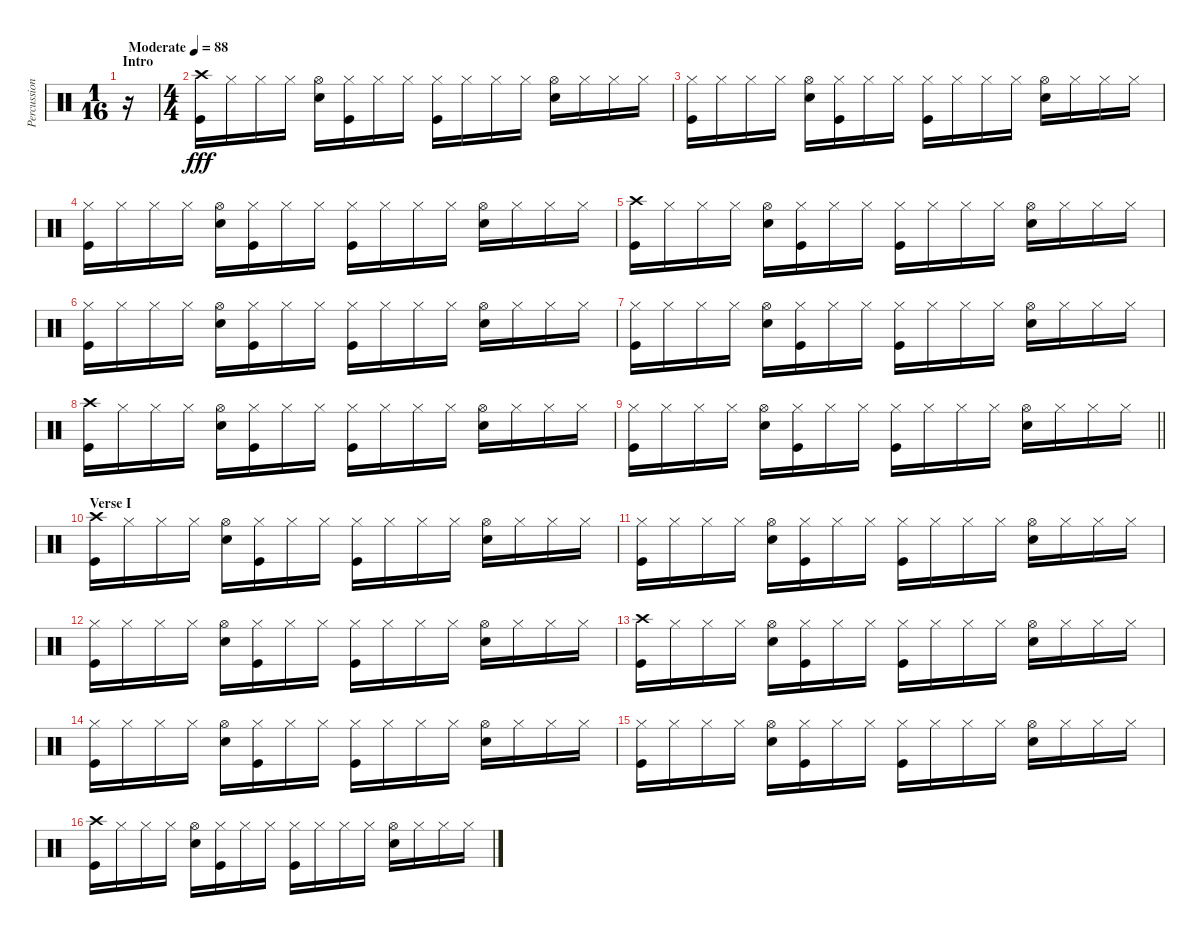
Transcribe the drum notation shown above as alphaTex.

\track ("Percussion" "Percussion") {instrument percussion}
\staff {score}
\articulation defaults
\ts (1 16)
\section ("" "Intro")
\tempo (88 "Moderate")
\clef neutral
\ks c
r.16{dy fff} |
\ts (4 4)
("Crash high (hit)" "Kick (hit)").16 "Hi-Hat (closed)".16 "Hi-Hat (closed)".16 "Hi-Hat (closed)".16 ("Hi-Hat (open)" "Snare (hit) 2").16 ("Hi-Hat (closed)" "Kick (hit)").16 "Hi-Hat (closed)".16 "Hi-Hat (closed)".16 ("Hi-Hat (closed)" "Kick (hit)").16 "Hi-Hat (closed)".16 "Hi-Hat (closed)".16 "Hi-Hat (closed)".16 ("Hi-Hat (open)" "Snare (hit) 2").16 "Hi-Hat (closed)".16 "Hi-Hat (closed)".16 "Hi-Hat (closed)".16 |
("Hi-Hat (closed)" "Kick (hit)").16 "Hi-Hat (closed)".16 "Hi-Hat (closed)".16 "Hi-Hat (closed)".16 ("Hi-Hat (open)" "Snare (hit) 2").16 ("Hi-Hat (closed)" "Kick (hit)").16 "Hi-Hat (closed)".16 "Hi-Hat (closed)".16 ("Hi-Hat (closed)" "Kick (hit)").16 "Hi-Hat (closed)".16 "Hi-Hat (closed)".16 "Hi-Hat (closed)".16 ("Hi-Hat (open)" "Snare (hit) 2").16 "Hi-Hat (closed)".16 "Hi-Hat (closed)".16 "Hi-Hat (closed)".16 |
("Hi-Hat (closed)" "Kick (hit)").16 "Hi-Hat (closed)".16 "Hi-Hat (closed)".16 "Hi-Hat (closed)".16 ("Hi-Hat (open)" "Snare (hit) 2").16 ("Hi-Hat (closed)" "Kick (hit)").16 "Hi-Hat (closed)".16 "Hi-Hat (closed)".16 ("Hi-Hat (closed)" "Kick (hit)").16 "Hi-Hat (closed)".16 "Hi-Hat (closed)".16 "Hi-Hat (closed)".16 ("Hi-Hat (open)" "Snare (hit) 2").16 "Hi-Hat (closed)".16 "Hi-Hat (closed)".16 "Hi-Hat (closed)".16 |
("Crash high (hit)" "Kick (hit)").16 "Hi-Hat (closed)".16 "Hi-Hat (closed)".16 "Hi-Hat (closed)".16 ("Hi-Hat (open)" "Snare (hit) 2").16 ("Hi-Hat (closed)" "Kick (hit)").16 "Hi-Hat (closed)".16 "Hi-Hat (closed)".16 ("Hi-Hat (closed)" "Kick (hit)").16 "Hi-Hat (closed)".16 "Hi-Hat (closed)".16 "Hi-Hat (closed)".16 ("Hi-Hat (open)" "Snare (hit) 2").16 "Hi-Hat (closed)".16 "Hi-Hat (closed)".16 "Hi-Hat (closed)".16 |
("Hi-Hat (closed)" "Kick (hit)").16 "Hi-Hat (closed)".16 "Hi-Hat (closed)".16 "Hi-Hat (closed)".16 ("Hi-Hat (open)" "Snare (hit) 2").16 ("Hi-Hat (closed)" "Kick (hit)").16 "Hi-Hat (closed)".16 "Hi-Hat (closed)".16 ("Hi-Hat (closed)" "Kick (hit)").16 "Hi-Hat (closed)".16 "Hi-Hat (closed)".16 "Hi-Hat (closed)".16 ("Hi-Hat (open)" "Snare (hit) 2").16 "Hi-Hat (closed)".16 "Hi-Hat (closed)".16 "Hi-Hat (closed)".16 |
("Hi-Hat (closed)" "Kick (hit)").16 "Hi-Hat (closed)".16 "Hi-Hat (closed)".16 "Hi-Hat (closed)".16 ("Hi-Hat (open)" "Snare (hit) 2").16 ("Hi-Hat (closed)" "Kick (hit)").16 "Hi-Hat (closed)".16 "Hi-Hat (closed)".16 ("Hi-Hat (closed)" "Kick (hit)").16 "Hi-Hat (closed)".16 "Hi-Hat (closed)".16 "Hi-Hat (closed)".16 ("Hi-Hat (open)" "Snare (hit) 2").16 "Hi-Hat (closed)".16 "Hi-Hat (closed)".16 "Hi-Hat (closed)".16 |
("Crash high (hit)" "Kick (hit)").16 "Hi-Hat (closed)".16 "Hi-Hat (closed)".16 "Hi-Hat (closed)".16 ("Hi-Hat (open)" "Snare (hit) 2").16 ("Hi-Hat (closed)" "Kick (hit)").16 "Hi-Hat (closed)".16 "Hi-Hat (closed)".16 ("Hi-Hat (closed)" "Kick (hit)").16 "Hi-Hat (closed)".16 "Hi-Hat (closed)".16 "Hi-Hat (closed)".16 ("Hi-Hat (open)" "Snare (hit) 2").16 "Hi-Hat (closed)".16 "Hi-Hat (closed)".16 "Hi-Hat (closed)".16 |
\barLineRight lightlight
("Hi-Hat (closed)" "Kick (hit)").16 "Hi-Hat (closed)".16 "Hi-Hat (closed)".16 "Hi-Hat (closed)".16 ("Hi-Hat (open)" "Snare (hit) 2").16 ("Hi-Hat (closed)" "Kick (hit)").16 "Hi-Hat (closed)".16 "Hi-Hat (closed)".16 ("Hi-Hat (closed)" "Kick (hit)").16 "Hi-Hat (closed)".16 "Hi-Hat (closed)".16 "Hi-Hat (closed)".16 ("Hi-Hat (open)" "Snare (hit) 2").16 "Hi-Hat (closed)".16 "Hi-Hat (closed)".16 "Hi-Hat (closed)".16 |
\section ("" "Verse I")
("Crash high (hit)" "Kick (hit)").16 "Hi-Hat (closed)".16 "Hi-Hat (closed)".16 "Hi-Hat (closed)".16 ("Hi-Hat (open)" "Snare (hit) 2").16 ("Hi-Hat (closed)" "Kick (hit)").16 "Hi-Hat (closed)".16 "Hi-Hat (closed)".16 ("Hi-Hat (closed)" "Kick (hit)").16 "Hi-Hat (closed)".16 "Hi-Hat (closed)".16 "Hi-Hat (closed)".16 ("Hi-Hat (open)" "Snare (hit) 2").16 "Hi-Hat (closed)".16 "Hi-Hat (closed)".16 "Hi-Hat (closed)".16 |
("Hi-Hat (closed)" "Kick (hit)").16 "Hi-Hat (closed)".16 "Hi-Hat (closed)".16 "Hi-Hat (closed)".16 ("Hi-Hat (open)" "Snare (hit) 2").16 ("Hi-Hat (closed)" "Kick (hit)").16 "Hi-Hat (closed)".16 "Hi-Hat (closed)".16 ("Hi-Hat (closed)" "Kick (hit)").16 "Hi-Hat (closed)".16 "Hi-Hat (closed)".16 "Hi-Hat (closed)".16 ("Hi-Hat (open)" "Snare (hit) 2").16 "Hi-Hat (closed)".16 "Hi-Hat (closed)".16 "Hi-Hat (closed)".16 |
("Hi-Hat (closed)" "Kick (hit)").16 "Hi-Hat (closed)".16 "Hi-Hat (closed)".16 "Hi-Hat (closed)".16 ("Hi-Hat (open)" "Snare (hit) 2").16 ("Hi-Hat (closed)" "Kick (hit)").16 "Hi-Hat (closed)".16 "Hi-Hat (closed)".16 ("Hi-Hat (closed)" "Kick (hit)").16 "Hi-Hat (closed)".16 "Hi-Hat (closed)".16 "Hi-Hat (closed)".16 ("Hi-Hat (open)" "Snare (hit) 2").16 "Hi-Hat (closed)".16 "Hi-Hat (closed)".16 "Hi-Hat (closed)".16 |
("Crash high (hit)" "Kick (hit)").16 "Hi-Hat (closed)".16 "Hi-Hat (closed)".16 "Hi-Hat (closed)".16 ("Hi-Hat (open)" "Snare (hit) 2").16 ("Hi-Hat (closed)" "Kick (hit)").16 "Hi-Hat (closed)".16 "Hi-Hat (closed)".16 ("Hi-Hat (closed)" "Kick (hit)").16 "Hi-Hat (closed)".16 "Hi-Hat (closed)".16 "Hi-Hat (closed)".16 ("Hi-Hat (open)" "Snare (hit) 2").16 "Hi-Hat (closed)".16 "Hi-Hat (closed)".16 "Hi-Hat (closed)".16 |
("Hi-Hat (closed)" "Kick (hit)").16 "Hi-Hat (closed)".16 "Hi-Hat (closed)".16 "Hi-Hat (closed)".16 ("Hi-Hat (open)" "Snare (hit) 2").16 ("Hi-Hat (closed)" "Kick (hit)").16 "Hi-Hat (closed)".16 "Hi-Hat (closed)".16 ("Hi-Hat (closed)" "Kick (hit)").16 "Hi-Hat (closed)".16 "Hi-Hat (closed)".16 "Hi-Hat (closed)".16 ("Hi-Hat (open)" "Snare (hit) 2").16 "Hi-Hat (closed)".16 "Hi-Hat (closed)".16 "Hi-Hat (closed)".16 |
("Hi-Hat (closed)" "Kick (hit)").16 "Hi-Hat (closed)".16 "Hi-Hat (closed)".16 "Hi-Hat (closed)".16 ("Hi-Hat (open)" "Snare (hit) 2").16 ("Hi-Hat (closed)" "Kick (hit)").16 "Hi-Hat (closed)".16 "Hi-Hat (closed)".16 ("Hi-Hat (closed)" "Kick (hit)").16 "Hi-Hat (closed)".16 "Hi-Hat (closed)".16 "Hi-Hat (closed)".16 ("Hi-Hat (open)" "Snare (hit) 2").16 "Hi-Hat (closed)".16 "Hi-Hat (closed)".16 "Hi-Hat (closed)".16 |
("Crash high (hit)" "Kick (hit)").16 "Hi-Hat (closed)".16 "Hi-Hat (closed)".16 "Hi-Hat (closed)".16 ("Hi-Hat (open)" "Snare (hit) 2").16 ("Hi-Hat (closed)" "Kick (hit)").16 "Hi-Hat (closed)".16 "Hi-Hat (closed)".16 ("Hi-Hat (closed)" "Kick (hit)").16 "Hi-Hat (closed)".16 "Hi-Hat (closed)".16 "Hi-Hat (closed)".16 ("Hi-Hat (open)" "Snare (hit) 2").16 "Hi-Hat (closed)".16 "Hi-Hat (closed)".16 "Hi-Hat (closed)".16
